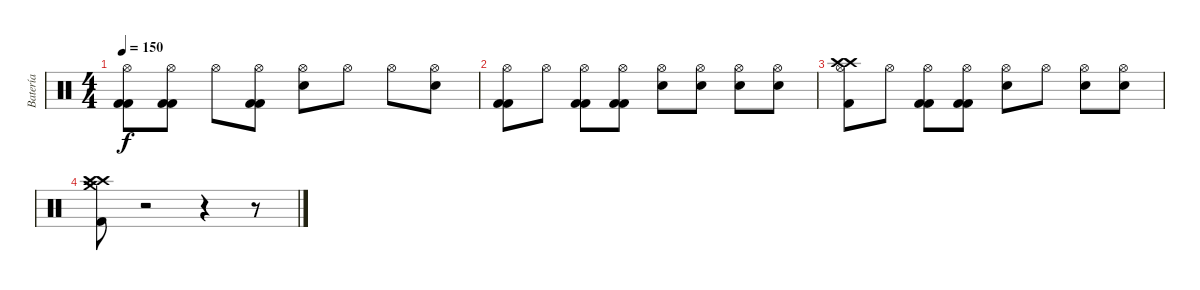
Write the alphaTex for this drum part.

\track ("Batería" "Batería") {instrument percussion}
\staff {score}
\articulation defaults
\ts (4 4)
\tempo 150
\clef neutral
\ks c
("Kick (hit) 2" "Kick (hit) 2" "Hi-Hat (open)").8{dy f} ("Kick (hit) 2" "Kick (hit) 2" "Hi-Hat (open)").8 "Hi-Hat (open)".8 ("Kick (hit) 2" "Kick (hit) 2" "Hi-Hat (open)").8 ("Snare (hit) 2" "Hi-Hat (open)").8 "Hi-Hat (open)".8 "Hi-Hat (open)".8 ("Snare (hit) 2" "Hi-Hat (open)").8 |
("Kick (hit) 2" "Kick (hit) 2" "Hi-Hat (open)").8 "Hi-Hat (open)".8 ("Kick (hit) 2" "Kick (hit) 2" "Hi-Hat (open)").8 ("Kick (hit) 2" "Kick (hit) 2" "Hi-Hat (open)").8 ("Snare (hit) 2" "Hi-Hat (open)").8 ("Snare (hit) 2" "Hi-Hat (open)").8 ("Snare (hit) 2" "Hi-Hat (open)").8 ("Snare (hit) 2" "Hi-Hat (open)").8 |
("Crash high (hit)" "Crash high (hit)" "Kick (hit) 2" "Hi-Hat (open)").8 "Hi-Hat (open)".8 ("Kick (hit) 2" "Kick (hit) 2" "Hi-Hat (open)").8 ("Kick (hit) 2" "Kick (hit) 2" "Hi-Hat (open)").8 ("Snare (hit) 2" "Hi-Hat (open)").8 "Hi-Hat (open)".8 ("Snare (hit) 2" "Hi-Hat (open)").8 ("Snare (hit) 2" "Hi-Hat (open)").8 |
("Crash high (hit)" "Crash high (hit)" "Crash medium (hit)" "Kick (hit) 2").8 r.2 r.4 r.8
